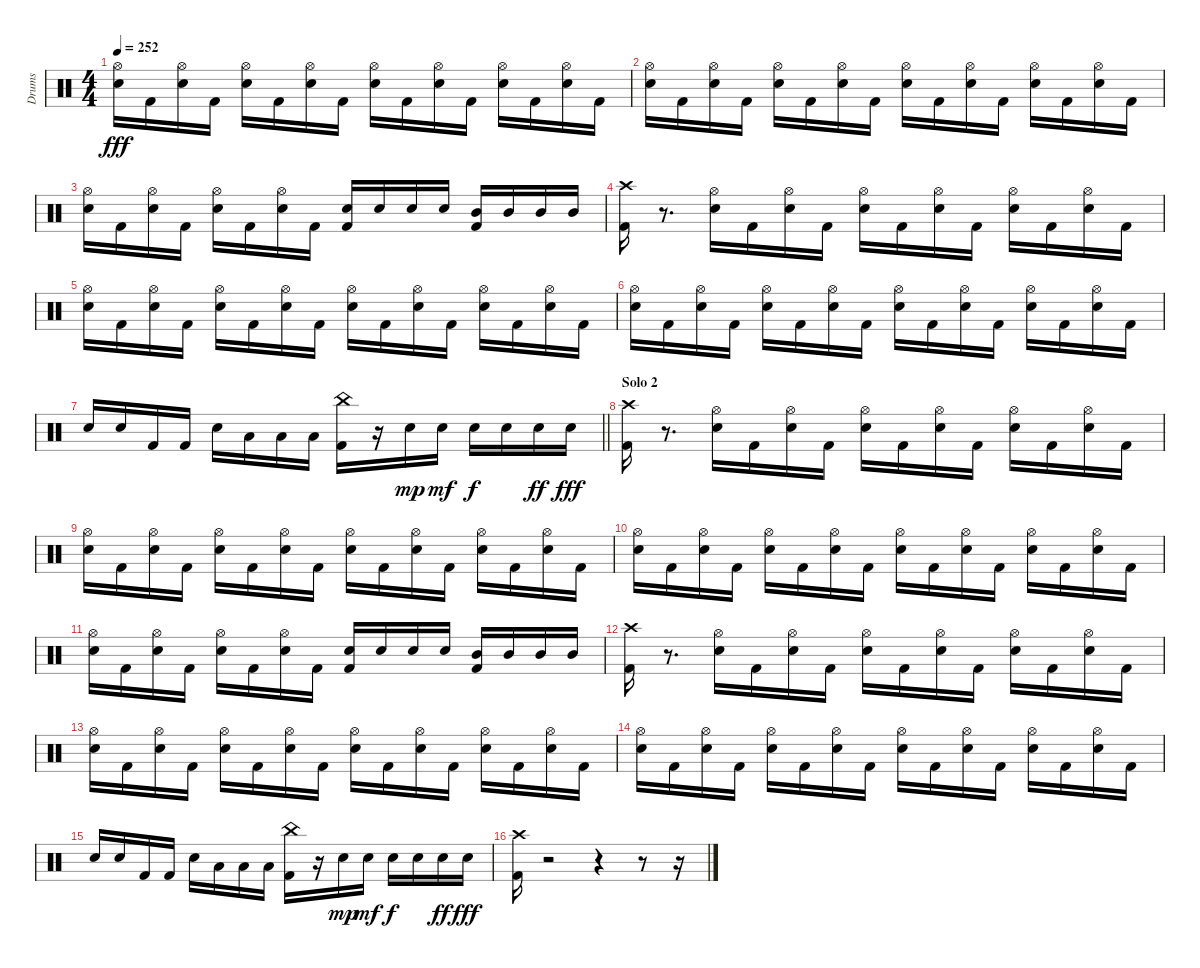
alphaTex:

\track ("Drums" "Drums") {instrument percussion}
\staff {score}
\articulation defaults
\ts (4 4)
\tempo 252
\clef neutral
\ks c
("Snare (hit) 2" "Hi-Hat (open)").16{dy fff} "Kick (hit) 2".16 ("Snare (hit) 2" "Hi-Hat (open)").16 "Kick (hit) 2".16 ("Snare (hit) 2" "Hi-Hat (open)").16 "Kick (hit) 2".16 ("Snare (hit) 2" "Hi-Hat (open)").16 "Kick (hit) 2".16 ("Snare (hit) 2" "Hi-Hat (open)").16 "Kick (hit) 2".16 ("Snare (hit) 2" "Hi-Hat (open)").16 "Kick (hit) 2".16 ("Snare (hit) 2" "Hi-Hat (open)").16 "Kick (hit) 2".16 ("Snare (hit) 2" "Hi-Hat (open)").16 "Kick (hit) 2".16 |
("Snare (hit) 2" "Hi-Hat (open)").16 "Kick (hit) 2".16 ("Snare (hit) 2" "Hi-Hat (open)").16 "Kick (hit) 2".16 ("Snare (hit) 2" "Hi-Hat (open)").16 "Kick (hit) 2".16 ("Snare (hit) 2" "Hi-Hat (open)").16 "Kick (hit) 2".16 ("Snare (hit) 2" "Hi-Hat (open)").16 "Kick (hit) 2".16 ("Snare (hit) 2" "Hi-Hat (open)").16 "Kick (hit) 2".16 ("Snare (hit) 2" "Hi-Hat (open)").16 "Kick (hit) 2".16 ("Snare (hit) 2" "Hi-Hat (open)").16 "Kick (hit) 2".16 |
("Snare (hit) 2" "Hi-Hat (open)").16 "Kick (hit) 2".16 ("Snare (hit) 2" "Hi-Hat (open)").16 "Kick (hit) 2".16 ("Snare (hit) 2" "Hi-Hat (open)").16 "Kick (hit) 2".16 ("Snare (hit) 2" "Hi-Hat (open)").16 "Kick (hit) 2".16 ("Kick (hit) 2" "Snare (hit) 2").16 "Snare (hit) 2".16 "Snare (hit) 2".16 "Snare (hit) 2".16 ("Kick (hit) 2" "Mid Tom (hit)").16 "Mid Tom (hit)".16 "Mid Tom (hit)".16 "Mid Tom (hit)".16 |
("Kick (hit) 2" "Crash high (hit)").16 r.8{d} ("Snare (hit) 2" "Hi-Hat (open)").16 "Kick (hit) 2".16 ("Snare (hit) 2" "Hi-Hat (open)").16 "Kick (hit) 2".16 ("Snare (hit) 2" "Hi-Hat (open)").16 "Kick (hit) 2".16 ("Snare (hit) 2" "Hi-Hat (open)").16 "Kick (hit) 2".16 ("Snare (hit) 2" "Hi-Hat (open)").16 "Kick (hit) 2".16 ("Snare (hit) 2" "Hi-Hat (open)").16 "Kick (hit) 2".16 |
("Snare (hit) 2" "Hi-Hat (open)").16 "Kick (hit) 2".16 ("Snare (hit) 2" "Hi-Hat (open)").16 "Kick (hit) 2".16 ("Snare (hit) 2" "Hi-Hat (open)").16 "Kick (hit) 2".16 ("Snare (hit) 2" "Hi-Hat (open)").16 "Kick (hit) 2".16 ("Snare (hit) 2" "Hi-Hat (open)").16 "Kick (hit) 2".16 ("Snare (hit) 2" "Hi-Hat (open)").16 "Kick (hit) 2".16 ("Snare (hit) 2" "Hi-Hat (open)").16 "Kick (hit) 2".16 ("Snare (hit) 2" "Hi-Hat (open)").16 "Kick (hit) 2".16 |
("Snare (hit) 2" "Hi-Hat (open)").16 "Kick (hit) 2".16 ("Snare (hit) 2" "Hi-Hat (open)").16 "Kick (hit) 2".16 ("Snare (hit) 2" "Hi-Hat (open)").16 "Kick (hit) 2".16 ("Snare (hit) 2" "Hi-Hat (open)").16 "Kick (hit) 2".16 ("Snare (hit) 2" "Hi-Hat (open)").16 "Kick (hit) 2".16 ("Snare (hit) 2" "Hi-Hat (open)").16 "Kick (hit) 2".16 ("Snare (hit) 2" "Hi-Hat (open)").16 "Kick (hit) 2".16 ("Snare (hit) 2" "Hi-Hat (open)").16 "Kick (hit) 2".16 |
\barLineRight lightlight "Snare (hit) 2".16 "Snare (hit) 2".16 "Kick (hit) 2".16 "Kick (hit) 2".16 "Snare (hit) 2".16 "Low Tom (hit)".16 "Low Tom (hit)".16 "Low Tom (hit)".16
("Kick (hit) 2" "China (hit)").16 r.16 "Snare (hit) 2".16{dy mp} "Snare (hit) 2".16{dy mf} "Snare (hit) 2".16{dy f} "Snare (hit) 2".16 "Snare (hit) 2".16{dy ff} "Snare (hit) 2".16{dy fff} |
\section ("" "Solo 2")
("Kick (hit) 2" "Crash high (hit)").16 r.8{d} ("Snare (hit) 2" "Hi-Hat (open)").16 "Kick (hit) 2".16 ("Snare (hit) 2" "Hi-Hat (open)").16 "Kick (hit) 2".16 ("Snare (hit) 2" "Hi-Hat (open)").16 "Kick (hit) 2".16 ("Snare (hit) 2" "Hi-Hat (open)").16 "Kick (hit) 2".16 ("Snare (hit) 2" "Hi-Hat (open)").16 "Kick (hit) 2".16 ("Snare (hit) 2" "Hi-Hat (open)").16 "Kick (hit) 2".16 |
("Snare (hit) 2" "Hi-Hat (open)").16 "Kick (hit) 2".16 ("Snare (hit) 2" "Hi-Hat (open)").16 "Kick (hit) 2".16 ("Snare (hit) 2" "Hi-Hat (open)").16 "Kick (hit) 2".16 ("Snare (hit) 2" "Hi-Hat (open)").16 "Kick (hit) 2".16 ("Snare (hit) 2" "Hi-Hat (open)").16 "Kick (hit) 2".16 ("Snare (hit) 2" "Hi-Hat (open)").16 "Kick (hit) 2".16 ("Snare (hit) 2" "Hi-Hat (open)").16 "Kick (hit) 2".16 ("Snare (hit) 2" "Hi-Hat (open)").16 "Kick (hit) 2".16 |
("Snare (hit) 2" "Hi-Hat (open)").16 "Kick (hit) 2".16 ("Snare (hit) 2" "Hi-Hat (open)").16 "Kick (hit) 2".16 ("Snare (hit) 2" "Hi-Hat (open)").16 "Kick (hit) 2".16 ("Snare (hit) 2" "Hi-Hat (open)").16 "Kick (hit) 2".16 ("Snare (hit) 2" "Hi-Hat (open)").16 "Kick (hit) 2".16 ("Snare (hit) 2" "Hi-Hat (open)").16 "Kick (hit) 2".16 ("Snare (hit) 2" "Hi-Hat (open)").16 "Kick (hit) 2".16 ("Snare (hit) 2" "Hi-Hat (open)").16 "Kick (hit) 2".16 |
("Snare (hit) 2" "Hi-Hat (open)").16 "Kick (hit) 2".16 ("Snare (hit) 2" "Hi-Hat (open)").16 "Kick (hit) 2".16 ("Snare (hit) 2" "Hi-Hat (open)").16 "Kick (hit) 2".16 ("Snare (hit) 2" "Hi-Hat (open)").16 "Kick (hit) 2".16 ("Kick (hit) 2" "Snare (hit) 2").16 "Snare (hit) 2".16 "Snare (hit) 2".16 "Snare (hit) 2".16 ("Kick (hit) 2" "Mid Tom (hit)").16 "Mid Tom (hit)".16 "Mid Tom (hit)".16 "Mid Tom (hit)".16 |
("Kick (hit) 2" "Crash high (hit)").16 r.8{d} ("Snare (hit) 2" "Hi-Hat (open)").16 "Kick (hit) 2".16 ("Snare (hit) 2" "Hi-Hat (open)").16 "Kick (hit) 2".16 ("Snare (hit) 2" "Hi-Hat (open)").16 "Kick (hit) 2".16 ("Snare (hit) 2" "Hi-Hat (open)").16 "Kick (hit) 2".16 ("Snare (hit) 2" "Hi-Hat (open)").16 "Kick (hit) 2".16 ("Snare (hit) 2" "Hi-Hat (open)").16 "Kick (hit) 2".16 |
("Snare (hit) 2" "Hi-Hat (open)").16 "Kick (hit) 2".16 ("Snare (hit) 2" "Hi-Hat (open)").16 "Kick (hit) 2".16 ("Snare (hit) 2" "Hi-Hat (open)").16 "Kick (hit) 2".16 ("Snare (hit) 2" "Hi-Hat (open)").16 "Kick (hit) 2".16 ("Snare (hit) 2" "Hi-Hat (open)").16 "Kick (hit) 2".16 ("Snare (hit) 2" "Hi-Hat (open)").16 "Kick (hit) 2".16 ("Snare (hit) 2" "Hi-Hat (open)").16 "Kick (hit) 2".16 ("Snare (hit) 2" "Hi-Hat (open)").16 "Kick (hit) 2".16 |
("Snare (hit) 2" "Hi-Hat (open)").16 "Kick (hit) 2".16 ("Snare (hit) 2" "Hi-Hat (open)").16 "Kick (hit) 2".16 ("Snare (hit) 2" "Hi-Hat (open)").16 "Kick (hit) 2".16 ("Snare (hit) 2" "Hi-Hat (open)").16 "Kick (hit) 2".16 ("Snare (hit) 2" "Hi-Hat (open)").16 "Kick (hit) 2".16 ("Snare (hit) 2" "Hi-Hat (open)").16 "Kick (hit) 2".16 ("Snare (hit) 2" "Hi-Hat (open)").16 "Kick (hit) 2".16 ("Snare (hit) 2" "Hi-Hat (open)").16 "Kick (hit) 2".16 |
"Snare (hit) 2".16 "Snare (hit) 2".16 "Kick (hit) 2".16 "Kick (hit) 2".16 "Snare (hit) 2".16 "Low Tom (hit)".16 "Low Tom (hit)".16 "Low Tom (hit)".16 ("Kick (hit) 2" "China (hit)").16 r.16 "Snare (hit) 2".16{dy mp} "Snare (hit) 2".16{dy mf} "Snare (hit) 2".16{dy f} "Snare (hit) 2".16 "Snare (hit) 2".16{dy ff} "Snare (hit) 2".16{dy fff} |
("Kick (hit) 2" "Crash high (hit)").16 r.2 r.4 r.8 r.16
